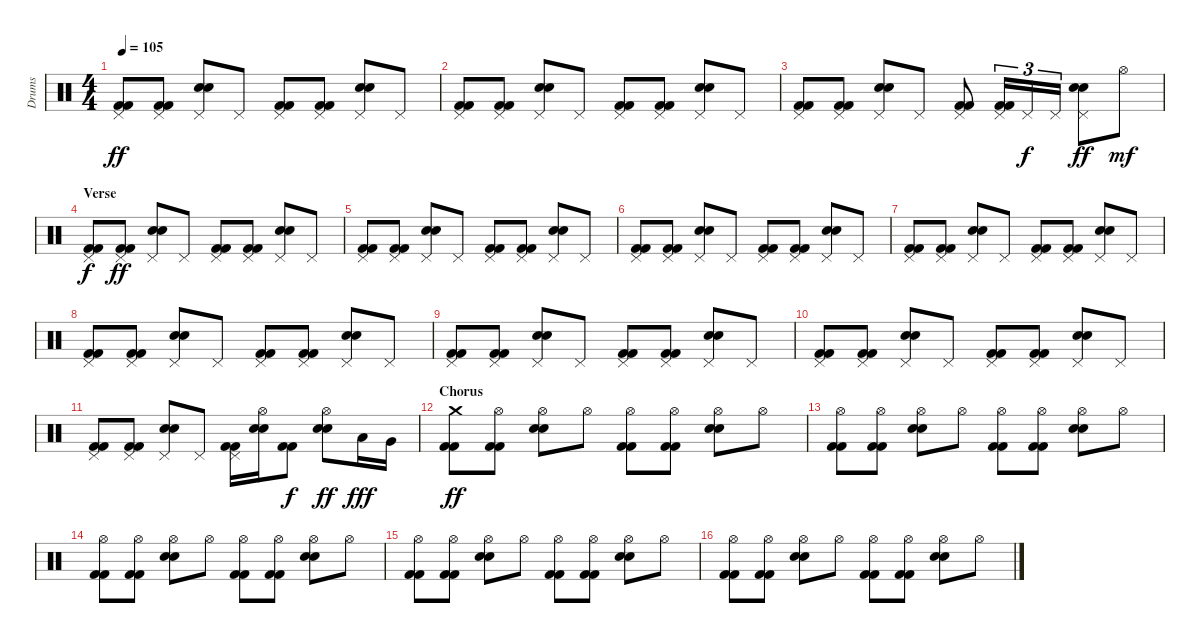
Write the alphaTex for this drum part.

\track ("Drums" "Drums") {instrument percussion}
\staff {score}
\articulation defaults
\ts (4 4)
\tempo 105
\clef neutral
\ks c
("Pedal Hi-Hat (hit)" "Kick (hit) 2" "Kick (hit) 2").8{dy ff} ("Pedal Hi-Hat (hit)" "Kick (hit) 2" "Kick (hit) 2").8 ("Pedal Hi-Hat (hit)" "Electric Snare (hit)" "Snare (hit) 2").8 "Pedal Hi-Hat (hit)".8 ("Pedal Hi-Hat (hit)" "Kick (hit) 2" "Kick (hit) 2").8 ("Pedal Hi-Hat (hit)" "Kick (hit) 2" "Kick (hit) 2").8 ("Pedal Hi-Hat (hit)" "Electric Snare (hit)" "Snare (hit) 2").8 "Pedal Hi-Hat (hit)".8 |
("Pedal Hi-Hat (hit)" "Kick (hit) 2" "Kick (hit) 2").8 ("Pedal Hi-Hat (hit)" "Kick (hit) 2" "Kick (hit) 2").8 ("Pedal Hi-Hat (hit)" "Electric Snare (hit)" "Snare (hit) 2").8 "Pedal Hi-Hat (hit)".8 ("Pedal Hi-Hat (hit)" "Kick (hit) 2" "Kick (hit) 2").8 ("Pedal Hi-Hat (hit)" "Kick (hit) 2" "Kick (hit) 2").8 ("Pedal Hi-Hat (hit)" "Electric Snare (hit)" "Snare (hit) 2").8 "Pedal Hi-Hat (hit)".8 |
("Pedal Hi-Hat (hit)" "Kick (hit) 2" "Kick (hit) 2").8 ("Pedal Hi-Hat (hit)" "Kick (hit) 2" "Kick (hit) 2").8 ("Pedal Hi-Hat (hit)" "Electric Snare (hit)" "Snare (hit) 2").8 "Pedal Hi-Hat (hit)".8 ("Pedal Hi-Hat (hit)" "Kick (hit) 2" "Kick (hit) 2").8 ("Pedal Hi-Hat (hit)" "Kick (hit) 2" "Kick (hit) 2").16{tu (3 2)} "Pedal Hi-Hat (hit)".16{tu (3 2) dy f} "Pedal Hi-Hat (hit)".16{tu (3 2)} ("Pedal Hi-Hat (hit)" "Electric Snare (hit)" "Snare (hit) 2").8{dy ff} "Hi-Hat (open)".8{dy mf} |
\section ("" "Verse")
("Pedal Hi-Hat (hit)" "Kick (hit) 2" "Kick (hit) 2").8{dy f} ("Pedal Hi-Hat (hit)" "Kick (hit) 2" "Kick (hit) 2").8{dy ff} ("Pedal Hi-Hat (hit)" "Electric Snare (hit)" "Snare (hit) 2").8 "Pedal Hi-Hat (hit)".8 ("Pedal Hi-Hat (hit)" "Kick (hit) 2" "Kick (hit) 2").8 ("Pedal Hi-Hat (hit)" "Kick (hit) 2" "Kick (hit) 2").8 ("Pedal Hi-Hat (hit)" "Electric Snare (hit)" "Snare (hit) 2").8 "Pedal Hi-Hat (hit)".8 |
("Pedal Hi-Hat (hit)" "Kick (hit) 2" "Kick (hit) 2").8 ("Pedal Hi-Hat (hit)" "Kick (hit) 2" "Kick (hit) 2").8 ("Pedal Hi-Hat (hit)" "Electric Snare (hit)" "Snare (hit) 2").8 "Pedal Hi-Hat (hit)".8 ("Pedal Hi-Hat (hit)" "Kick (hit) 2" "Kick (hit) 2").8 ("Pedal Hi-Hat (hit)" "Kick (hit) 2" "Kick (hit) 2").8 ("Pedal Hi-Hat (hit)" "Electric Snare (hit)" "Snare (hit) 2").8 "Pedal Hi-Hat (hit)".8 |
("Pedal Hi-Hat (hit)" "Kick (hit) 2" "Kick (hit) 2").8 ("Pedal Hi-Hat (hit)" "Kick (hit) 2" "Kick (hit) 2").8 ("Pedal Hi-Hat (hit)" "Electric Snare (hit)" "Snare (hit) 2").8 "Pedal Hi-Hat (hit)".8 ("Pedal Hi-Hat (hit)" "Kick (hit) 2" "Kick (hit) 2").8 ("Pedal Hi-Hat (hit)" "Kick (hit) 2" "Kick (hit) 2").8 ("Pedal Hi-Hat (hit)" "Electric Snare (hit)" "Snare (hit) 2").8 "Pedal Hi-Hat (hit)".8 |
("Pedal Hi-Hat (hit)" "Kick (hit) 2" "Kick (hit) 2").8 ("Pedal Hi-Hat (hit)" "Kick (hit) 2" "Kick (hit) 2").8 ("Pedal Hi-Hat (hit)" "Electric Snare (hit)" "Snare (hit) 2").8 "Pedal Hi-Hat (hit)".8 ("Pedal Hi-Hat (hit)" "Kick (hit) 2" "Kick (hit) 2").8 ("Pedal Hi-Hat (hit)" "Kick (hit) 2" "Kick (hit) 2").8 ("Pedal Hi-Hat (hit)" "Electric Snare (hit)" "Snare (hit) 2").8 "Pedal Hi-Hat (hit)".8 |
("Pedal Hi-Hat (hit)" "Kick (hit) 2" "Kick (hit) 2").8 ("Pedal Hi-Hat (hit)" "Kick (hit) 2" "Kick (hit) 2").8 ("Pedal Hi-Hat (hit)" "Electric Snare (hit)" "Snare (hit) 2").8 "Pedal Hi-Hat (hit)".8 ("Pedal Hi-Hat (hit)" "Kick (hit) 2" "Kick (hit) 2").8 ("Pedal Hi-Hat (hit)" "Kick (hit) 2" "Kick (hit) 2").8 ("Pedal Hi-Hat (hit)" "Electric Snare (hit)" "Snare (hit) 2").8 "Pedal Hi-Hat (hit)".8 |
("Pedal Hi-Hat (hit)" "Kick (hit) 2" "Kick (hit) 2").8 ("Pedal Hi-Hat (hit)" "Kick (hit) 2" "Kick (hit) 2").8 ("Pedal Hi-Hat (hit)" "Electric Snare (hit)" "Snare (hit) 2").8 "Pedal Hi-Hat (hit)".8 ("Pedal Hi-Hat (hit)" "Kick (hit) 2" "Kick (hit) 2").8 ("Pedal Hi-Hat (hit)" "Kick (hit) 2" "Kick (hit) 2").8 ("Pedal Hi-Hat (hit)" "Electric Snare (hit)" "Snare (hit) 2").8 "Pedal Hi-Hat (hit)".8 |
("Pedal Hi-Hat (hit)" "Kick (hit) 2" "Kick (hit) 2").8 ("Pedal Hi-Hat (hit)" "Kick (hit) 2" "Kick (hit) 2").8 ("Pedal Hi-Hat (hit)" "Electric Snare (hit)" "Snare (hit) 2").8 "Pedal Hi-Hat (hit)".8 ("Pedal Hi-Hat (hit)" "Kick (hit) 2" "Kick (hit) 2").8 ("Pedal Hi-Hat (hit)" "Kick (hit) 2" "Kick (hit) 2").8 ("Pedal Hi-Hat (hit)" "Electric Snare (hit)" "Snare (hit) 2").8 "Pedal Hi-Hat (hit)".8 |
("Pedal Hi-Hat (hit)" "Kick (hit) 2" "Kick (hit) 2").8 ("Pedal Hi-Hat (hit)" "Kick (hit) 2" "Kick (hit) 2").8 ("Pedal Hi-Hat (hit)" "Electric Snare (hit)" "Snare (hit) 2").8 "Pedal Hi-Hat (hit)".8 ("Pedal Hi-Hat (hit)" "Kick (hit) 2" "Kick (hit) 2").16 ("Hi-Hat (open)" "Electric Snare (hit)" "Snare (hit) 2").16 ("Kick (hit) 2" "Kick (hit) 2").8{dy f} ("Hi-Hat (open)" "Electric Snare (hit)" "Snare (hit) 2").8{dy ff} "Low Tom (hit)".16{dy fff} "Very Low Tom (hit)".16 |
\section ("" "Chorus")
("Crash medium (hit)" "Kick (hit) 2" "Kick (hit) 2").8{dy ff} ("Hi-Hat (open)" "Kick (hit) 2" "Kick (hit) 2").8 ("Hi-Hat (open)" "Electric Snare (hit)" "Snare (hit) 2").8 "Hi-Hat (open)".8 ("Hi-Hat (open)" "Kick (hit) 2" "Kick (hit) 2").8 ("Hi-Hat (open)" "Kick (hit) 2" "Kick (hit) 2").8 ("Hi-Hat (open)" "Electric Snare (hit)" "Snare (hit) 2").8 "Hi-Hat (open)".8 |
("Hi-Hat (open)" "Kick (hit) 2" "Kick (hit) 2").8 ("Hi-Hat (open)" "Kick (hit) 2" "Kick (hit) 2").8 ("Hi-Hat (open)" "Electric Snare (hit)" "Snare (hit) 2").8 "Hi-Hat (open)".8 ("Hi-Hat (open)" "Kick (hit) 2" "Kick (hit) 2").8 ("Hi-Hat (open)" "Kick (hit) 2" "Kick (hit) 2").8 ("Hi-Hat (open)" "Electric Snare (hit)" "Snare (hit) 2").8 "Hi-Hat (open)".8 |
("Hi-Hat (open)" "Kick (hit) 2" "Kick (hit) 2").8 ("Hi-Hat (open)" "Kick (hit) 2" "Kick (hit) 2").8 ("Hi-Hat (open)" "Electric Snare (hit)" "Snare (hit) 2").8 "Hi-Hat (open)".8 ("Hi-Hat (open)" "Kick (hit) 2" "Kick (hit) 2").8 ("Hi-Hat (open)" "Kick (hit) 2" "Kick (hit) 2").8 ("Hi-Hat (open)" "Electric Snare (hit)" "Snare (hit) 2").8 "Hi-Hat (open)".8 |
("Hi-Hat (open)" "Kick (hit) 2" "Kick (hit) 2").8 ("Hi-Hat (open)" "Kick (hit) 2" "Kick (hit) 2").8 ("Hi-Hat (open)" "Electric Snare (hit)" "Snare (hit) 2").8 "Hi-Hat (open)".8 ("Hi-Hat (open)" "Kick (hit) 2" "Kick (hit) 2").8 ("Hi-Hat (open)" "Kick (hit) 2" "Kick (hit) 2").8 ("Hi-Hat (open)" "Electric Snare (hit)" "Snare (hit) 2").8 "Hi-Hat (open)".8 |
("Hi-Hat (open)" "Kick (hit) 2" "Kick (hit) 2").8 ("Hi-Hat (open)" "Kick (hit) 2" "Kick (hit) 2").8 ("Hi-Hat (open)" "Electric Snare (hit)" "Snare (hit) 2").8 "Hi-Hat (open)".8 ("Hi-Hat (open)" "Kick (hit) 2" "Kick (hit) 2").8 ("Hi-Hat (open)" "Kick (hit) 2" "Kick (hit) 2").8 ("Hi-Hat (open)" "Electric Snare (hit)" "Snare (hit) 2").8 "Hi-Hat (open)".8
